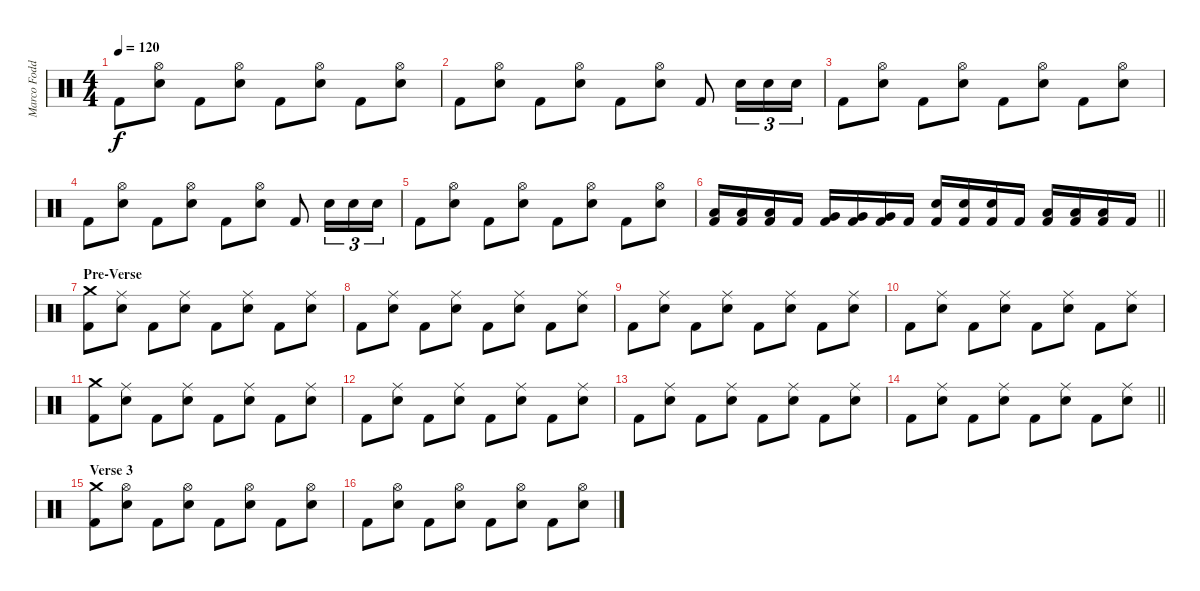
\track ("Marco Foddis " "Marco Fodd") {instrument percussion}
\staff {score}
\articulation defaults
\ts (4 4)
\tempo 120
\clef neutral
\ks c "Kick (hit) 2".8{dy f}
("Hi-Hat (open)" "Electric Snare (hit)").8 "Kick (hit) 2".8 ("Hi-Hat (open)" "Electric Snare (hit)").8 "Kick (hit) 2".8 ("Hi-Hat (open)" "Electric Snare (hit)").8 "Kick (hit) 2".8 ("Hi-Hat (open)" "Electric Snare (hit)").8 |
"Kick (hit) 2".8 ("Hi-Hat (open)" "Electric Snare (hit)").8 "Kick (hit) 2".8 ("Hi-Hat (open)" "Electric Snare (hit)").8 "Kick (hit) 2".8 ("Hi-Hat (open)" "Electric Snare (hit)").8 "Kick (hit) 2".8 "Electric Snare (hit)".16{tu (3 2)} "Electric Snare (hit)".16{tu (3 2)} "Electric Snare (hit)".16{tu (3 2)} |
"Kick (hit) 2".8 ("Hi-Hat (open)" "Electric Snare (hit)").8 "Kick (hit) 2".8 ("Hi-Hat (open)" "Electric Snare (hit)").8 "Kick (hit) 2".8 ("Hi-Hat (open)" "Electric Snare (hit)").8 "Kick (hit) 2".8 ("Hi-Hat (open)" "Electric Snare (hit)").8 |
"Kick (hit) 2".8 ("Hi-Hat (open)" "Electric Snare (hit)").8 "Kick (hit) 2".8 ("Hi-Hat (open)" "Electric Snare (hit)").8 "Kick (hit) 2".8 ("Hi-Hat (open)" "Electric Snare (hit)").8 "Kick (hit) 2".8 "Electric Snare (hit)".16{tu (3 2)} "Electric Snare (hit)".16{tu (3 2)} "Electric Snare (hit)".16{tu (3 2)} |
"Kick (hit) 2".8 ("Hi-Hat (open)" "Electric Snare (hit)").8 "Kick (hit) 2".8 ("Hi-Hat (open)" "Electric Snare (hit)").8 "Kick (hit) 2".8 ("Hi-Hat (open)" "Electric Snare (hit)").8 "Kick (hit) 2".8 ("Hi-Hat (open)" "Electric Snare (hit)").8 |
\barLineRight lightlight
("Low Tom (hit)" "Kick (hit) 2").16 ("Low Tom (hit)" "Kick (hit) 2").16 ("Low Tom (hit)" "Kick (hit) 2").16 "Kick (hit) 2".16 ("Very Low Tom (hit)" "Kick (hit) 2").16 ("Very Low Tom (hit)" "Kick (hit) 2").16 ("Very Low Tom (hit)" "Kick (hit) 2").16 "Kick (hit) 2".16 ("Electric Snare (hit)" "Kick (hit) 2").16 ("Electric Snare (hit)" "Kick (hit) 2").16 ("Electric Snare (hit)" "Kick (hit) 2").16 "Kick (hit) 2".16 ("Low Floor Tom (hit)" "Kick (hit) 2").16 ("Low Floor Tom (hit)" "Kick (hit) 2").16 ("Low Floor Tom (hit)" "Kick (hit) 2").16 "Kick (hit) 2".16 |
\section ("" "Pre-Verse")
("Crash medium (hit)" "Kick (hit) 2").8 ("Ride (middle)" "Electric Snare (hit)").8 "Kick (hit) 2".8 ("Ride (middle)" "Electric Snare (hit)").8 "Kick (hit) 2".8 ("Ride (middle)" "Electric Snare (hit)").8 "Kick (hit) 2".8 ("Ride (middle)" "Electric Snare (hit)").8 |
"Kick (hit) 2".8 ("Ride (middle)" "Electric Snare (hit)").8 "Kick (hit) 2".8 ("Ride (middle)" "Electric Snare (hit)").8 "Kick (hit) 2".8 ("Ride (middle)" "Electric Snare (hit)").8 "Kick (hit) 2".8 ("Ride (middle)" "Electric Snare (hit)").8 |
"Kick (hit) 2".8 ("Ride (middle)" "Electric Snare (hit)").8 "Kick (hit) 2".8 ("Ride (middle)" "Electric Snare (hit)").8 "Kick (hit) 2".8 ("Ride (middle)" "Electric Snare (hit)").8 "Kick (hit) 2".8 ("Ride (middle)" "Electric Snare (hit)").8 |
"Kick (hit) 2".8 ("Ride (middle)" "Electric Snare (hit)").8 "Kick (hit) 2".8 ("Ride (middle)" "Electric Snare (hit)").8 "Kick (hit) 2".8 ("Ride (middle)" "Electric Snare (hit)").8 "Kick (hit) 2".8 ("Ride (middle)" "Electric Snare (hit)").8 |
("Crash medium (hit)" "Kick (hit) 2").8 ("Ride (middle)" "Electric Snare (hit)").8 "Kick (hit) 2".8 ("Ride (middle)" "Electric Snare (hit)").8 "Kick (hit) 2".8 ("Ride (middle)" "Electric Snare (hit)").8 "Kick (hit) 2".8 ("Ride (middle)" "Electric Snare (hit)").8 |
"Kick (hit) 2".8 ("Ride (middle)" "Electric Snare (hit)").8 "Kick (hit) 2".8 ("Ride (middle)" "Electric Snare (hit)").8 "Kick (hit) 2".8 ("Ride (middle)" "Electric Snare (hit)").8 "Kick (hit) 2".8 ("Ride (middle)" "Electric Snare (hit)").8 |
"Kick (hit) 2".8 ("Ride (middle)" "Electric Snare (hit)").8 "Kick (hit) 2".8 ("Ride (middle)" "Electric Snare (hit)").8 "Kick (hit) 2".8 ("Ride (middle)" "Electric Snare (hit)").8 "Kick (hit) 2".8 ("Ride (middle)" "Electric Snare (hit)").8 |
\barLineRight lightlight "Kick (hit) 2".8
("Ride (middle)" "Electric Snare (hit)").8 "Kick (hit) 2".8 ("Ride (middle)" "Electric Snare (hit)").8 "Kick (hit) 2".8 ("Ride (middle)" "Electric Snare (hit)").8 "Kick (hit) 2".8 ("Ride (middle)" "Electric Snare (hit)").8 |
\section ("" "Verse 3")
("Crash medium (hit)" "Kick (hit) 2").8 ("Hi-Hat (open)" "Electric Snare (hit)").8 "Kick (hit) 2".8 ("Hi-Hat (open)" "Electric Snare (hit)").8 "Kick (hit) 2".8 ("Hi-Hat (open)" "Electric Snare (hit)").8 "Kick (hit) 2".8 ("Hi-Hat (open)" "Electric Snare (hit)").8 |
"Kick (hit) 2".8 ("Hi-Hat (open)" "Electric Snare (hit)").8 "Kick (hit) 2".8 ("Hi-Hat (open)" "Electric Snare (hit)").8 "Kick (hit) 2".8 ("Hi-Hat (open)" "Electric Snare (hit)").8 "Kick (hit) 2".8 ("Hi-Hat (open)" "Electric Snare (hit)").8
